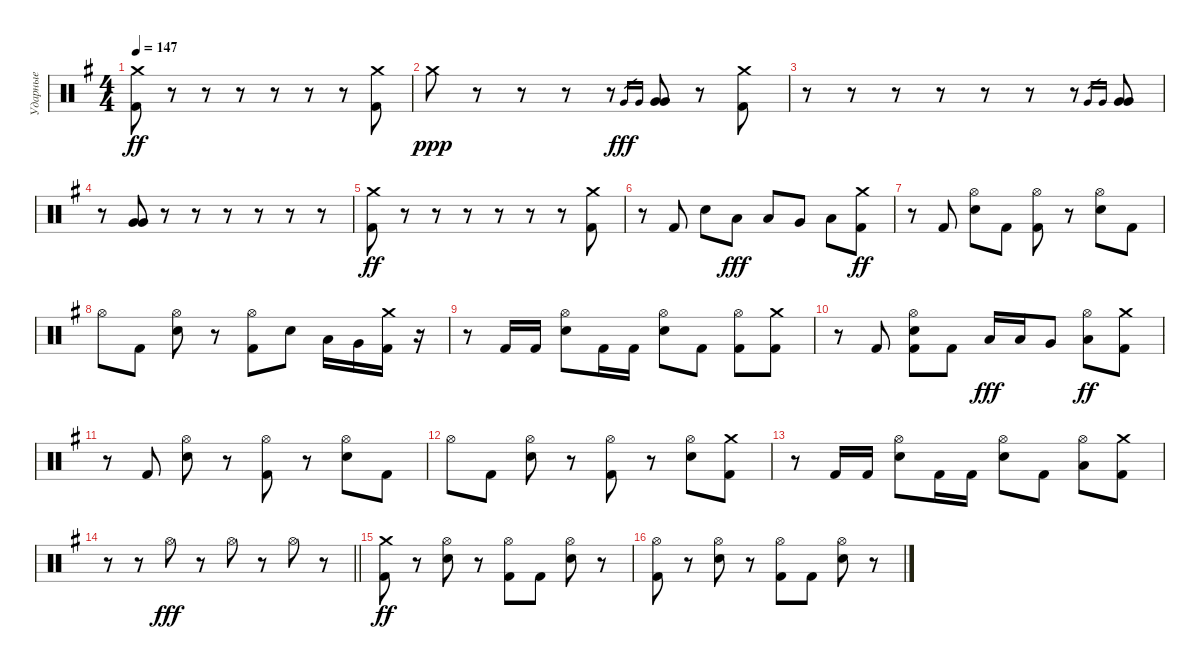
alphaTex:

\track ("Ударные" "Ударные") {instrument percussion}
\staff {score}
\articulation defaults
\ts (4 4)
\tempo 147
\clef neutral
\ks eminor
("Crash medium (hit)" "Kick (hit) 2").8{dy ff} r.8 r.8 r.8 r.8 r.8 r.8 ("Crash medium (hit)" "Kick (hit) 2").8 |
"Crash medium (hit)".8{dy ppp} r.8 r.8 r.8 r.8 "Very Low Tom (hit)".16{gr dy fff} "Very Low Tom (hit)".16{gr} ("Very Low Tom (hit)" "Very Low Tom (hit)").8 r.8 ("Crash medium (hit)" "Kick (hit) 2").8 |
r.8 r.8 r.8 r.8 r.8 r.8 r.8 "Very Low Tom (hit)".16{gr} "Very Low Tom (hit)".16{gr} ("Very Low Tom (hit)" "Very Low Tom (hit)").8 |
r.8 ("Very Low Tom (hit)" "Very Low Tom (hit)").8 r.8 r.8 r.8 r.8 r.8 r.8 |
("Kick (hit) 2" "Crash medium (hit)").8{dy ff} r.8 r.8 r.8 r.8 r.8 r.8 ("Kick (hit) 2" "Crash medium (hit)").8 |
r.8 "Kick (hit) 2".8 "Electric Snare (hit)".8 "Low Tom (hit)".8{dy fff} "Low Tom (hit)".8 "Very Low Tom (hit)".8 "Low Floor Tom (hit)".8 ("Kick (hit) 2" "Crash medium (hit)").8{dy ff} |
r.8 "Kick (hit) 2".8 ("Electric Snare (hit)" "Hi-Hat (open)").8 "Kick (hit) 2".8 ("Kick (hit) 2" "Hi-Hat (open)").8 r.8 ("Electric Snare (hit)" "Hi-Hat (open)").8 "Kick (hit) 2".8 |
"Hi-Hat (open)".8 "Kick (hit) 2".8 ("Electric Snare (hit)" "Hi-Hat (open)").8 r.8 ("Kick (hit) 2" "Hi-Hat (open)").8 "Electric Snare (hit)".8 "Low Tom (hit)".16 "Very Low Tom (hit)".16 ("Kick (hit) 2" "Crash medium (hit)").16 r.16 |
r.8 "Kick (hit) 2".16 "Kick (hit) 2".16 ("Electric Snare (hit)" "Hi-Hat (open)").8 "Kick (hit) 2".16 "Kick (hit) 2".16 ("Electric Snare (hit)" "Hi-Hat (open)").8 "Kick (hit) 2".8 ("Kick (hit) 2" "Hi-Hat (open)").8 ("Kick (hit) 2" "Crash medium (hit)").8 |
r.8 "Kick (hit) 2".8 ("Kick (hit) 2" "Electric Snare (hit)" "Hi-Hat (open)").8 "Kick (hit) 2".8 "Low Tom (hit)".16{dy fff} "Low Tom (hit)".16 "Very Low Tom (hit)".8 ("Low Floor Tom (hit)" "Hi-Hat (open)").8{dy ff} ("Kick (hit) 2" "Crash medium (hit)").8 |
r.8 "Kick (hit) 2".8 ("Electric Snare (hit)" "Hi-Hat (open)").8 r.8 ("Kick (hit) 2" "Hi-Hat (open)").8 r.8 ("Electric Snare (hit)" "Hi-Hat (open)").8 "Kick (hit) 2".8 |
"Hi-Hat (open)".8 "Kick (hit) 2".8 ("Electric Snare (hit)" "Hi-Hat (open)").8 r.8 ("Kick (hit) 2" "Hi-Hat (open)").8 r.8 ("Electric Snare (hit)" "Hi-Hat (open)").8 ("Kick (hit) 2" "Crash medium (hit)").8 |
r.8 "Kick (hit) 2".16 "Kick (hit) 2".16 ("Electric Snare (hit)" "Hi-Hat (open)").8 "Kick (hit) 2".16 "Kick (hit) 2".16 ("Electric Snare (hit)" "Hi-Hat (open)").8 "Kick (hit) 2".8 ("Low Tom (hit)" "Hi-Hat (open)").8 ("Kick (hit) 2" "Crash medium (hit)").8 |
\barLineRight lightlight
r.8 r.8 "Hi-Hat (open)".8{dy fff} r.8 "Hi-Hat (open)".8 r.8 "Hi-Hat (open)".8 r.8 |
("Kick (hit) 2" "Crash medium (hit)").8{dy ff} r.8 ("Electric Snare (hit)" "Hi-Hat (open)").8 r.8 ("Kick (hit) 2" "Hi-Hat (open)").8 "Kick (hit) 2".8 ("Electric Snare (hit)" "Hi-Hat (open)").8 r.8 |
("Kick (hit) 2" "Hi-Hat (open)").8 r.8 ("Electric Snare (hit)" "Hi-Hat (open)").8 r.8 ("Kick (hit) 2" "Hi-Hat (open)").8 "Kick (hit) 2".8 ("Electric Snare (hit)" "Hi-Hat (open)").8 r.8
